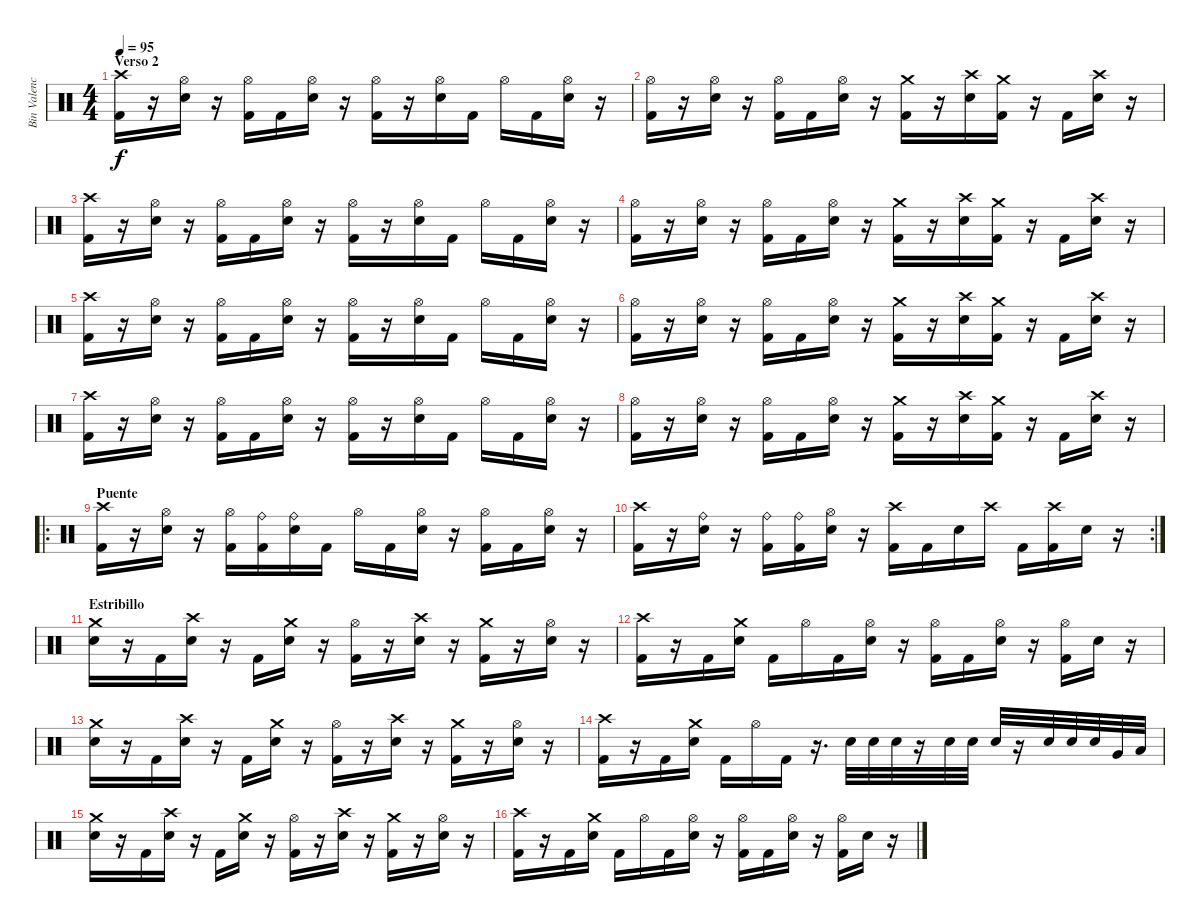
\track ("Bin Valencia (bateria)" "Bin Valenc") {instrument percussion}
\staff {score}
\articulation defaults
\ts (4 4)
\section ("" "Verso 2")
\tempo 95
\clef neutral
\ks c
("Crash high (hit)" "Kick (hit) 2").16{dy f} r.16 ("Hi-Hat (open)" "Snare (hit) 2").16 r.16 ("Hi-Hat (open)" "Kick (hit) 2").16 "Kick (hit) 2".16 ("Hi-Hat (open)" "Snare (hit) 2").16 r.16 ("Hi-Hat (open)" "Kick (hit) 2").16 r.16 ("Hi-Hat (open)" "Snare (hit) 2").16 "Kick (hit) 2".16 "Hi-Hat (open)".16 "Kick (hit) 2".16 ("Hi-Hat (open)" "Snare (hit) 2").16 r.16 |
("Hi-Hat (open)" "Kick (hit) 2").16 r.16 ("Hi-Hat (open)" "Snare (hit) 2").16 r.16 ("Hi-Hat (open)" "Kick (hit) 2").16 "Kick (hit) 2".16 ("Hi-Hat (open)" "Snare (hit) 2").16 r.16 ("Crash medium (hit)" "Kick (hit) 2").16 r.16 ("Crash high (hit)" "Snare (hit) 2").16 ("Crash medium (hit)" "Kick (hit) 2").16 r.16 "Kick (hit) 2".16 ("Crash high (hit)" "Snare (hit) 2").16 r.16 |
("Crash high (hit)" "Kick (hit) 2").16 r.16 ("Hi-Hat (open)" "Snare (hit) 2").16 r.16 ("Hi-Hat (open)" "Kick (hit) 2").16 "Kick (hit) 2".16 ("Hi-Hat (open)" "Snare (hit) 2").16 r.16 ("Hi-Hat (open)" "Kick (hit) 2").16 r.16 ("Hi-Hat (open)" "Snare (hit) 2").16 "Kick (hit) 2".16 "Hi-Hat (open)".16 "Kick (hit) 2".16 ("Hi-Hat (open)" "Snare (hit) 2").16 r.16 |
("Hi-Hat (open)" "Kick (hit) 2").16 r.16 ("Hi-Hat (open)" "Snare (hit) 2").16 r.16 ("Hi-Hat (open)" "Kick (hit) 2").16 "Kick (hit) 2".16 ("Hi-Hat (open)" "Snare (hit) 2").16 r.16 ("Crash medium (hit)" "Kick (hit) 2").16 r.16 ("Crash high (hit)" "Snare (hit) 2").16 ("Crash medium (hit)" "Kick (hit) 2").16 r.16 "Kick (hit) 2".16 ("Crash high (hit)" "Snare (hit) 2").16 r.16 |
("Crash high (hit)" "Kick (hit) 2").16 r.16 ("Hi-Hat (open)" "Snare (hit) 2").16 r.16 ("Hi-Hat (open)" "Kick (hit) 2").16 "Kick (hit) 2".16 ("Hi-Hat (open)" "Snare (hit) 2").16 r.16 ("Hi-Hat (open)" "Kick (hit) 2").16 r.16 ("Hi-Hat (open)" "Snare (hit) 2").16 "Kick (hit) 2".16 "Hi-Hat (open)".16 "Kick (hit) 2".16 ("Hi-Hat (open)" "Snare (hit) 2").16 r.16 |
("Hi-Hat (open)" "Kick (hit) 2").16 r.16 ("Hi-Hat (open)" "Snare (hit) 2").16 r.16 ("Hi-Hat (open)" "Kick (hit) 2").16 "Kick (hit) 2".16 ("Hi-Hat (open)" "Snare (hit) 2").16 r.16 ("Crash medium (hit)" "Kick (hit) 2").16 r.16 ("Crash high (hit)" "Snare (hit) 2").16 ("Crash medium (hit)" "Kick (hit) 2").16 r.16 "Kick (hit) 2".16 ("Crash high (hit)" "Snare (hit) 2").16 r.16 |
("Crash high (hit)" "Kick (hit) 2").16 r.16 ("Hi-Hat (open)" "Snare (hit) 2").16 r.16 ("Hi-Hat (open)" "Kick (hit) 2").16 "Kick (hit) 2".16 ("Hi-Hat (open)" "Snare (hit) 2").16 r.16 ("Hi-Hat (open)" "Kick (hit) 2").16 r.16 ("Hi-Hat (open)" "Snare (hit) 2").16 "Kick (hit) 2".16 "Hi-Hat (open)".16 "Kick (hit) 2".16 ("Hi-Hat (open)" "Snare (hit) 2").16 r.16 |
("Hi-Hat (open)" "Kick (hit) 2").16 r.16 ("Hi-Hat (open)" "Snare (hit) 2").16 r.16 ("Hi-Hat (open)" "Kick (hit) 2").16 "Kick (hit) 2".16 ("Hi-Hat (open)" "Snare (hit) 2").16 r.16 ("Crash medium (hit)" "Kick (hit) 2").16 r.16 ("Crash high (hit)" "Snare (hit) 2").16 ("Crash medium (hit)" "Kick (hit) 2").16 r.16 "Kick (hit) 2".16 ("Crash high (hit)" "Snare (hit) 2").16 r.16 |
\ro
\section ("" "Puente")
("Crash high (hit)" "Kick (hit) 2").16 r.16 ("Hi-Hat (open)" "Snare (hit) 2").16 r.16 ("Hi-Hat (open)" "Kick (hit) 2").16 ("Ride (bell)" "Kick (hit) 2").16 ("Ride (bell)" "Snare (hit) 2").16 "Kick (hit) 2".16 "Hi-Hat (open)".16 "Kick (hit) 2".16 ("Hi-Hat (open)" "Snare (hit) 2").16 r.16 ("Hi-Hat (open)" "Kick (hit) 2").16 "Kick (hit) 2".16 ("Hi-Hat (open)" "Snare (hit) 2").16 r.16 |
\rc 2
("Crash high (hit)" "Kick (hit) 2").16 r.16 ("Ride (bell)" "Snare (hit) 2").16 r.16 ("Ride (bell)" "Kick (hit) 2").16 ("Ride (bell)" "Kick (hit) 2").16 ("Hi-Hat (open)" "Snare (hit) 2").16 r.16 ("Crash high (hit)" "Kick (hit) 2").16 "Kick (hit) 2".16 "Snare (hit) 2".16 "Crash high (hit)".16 "Kick (hit) 2".16 ("Crash high (hit)" "Kick (hit) 2").16 "Snare (hit) 2".16 r.16 |
\section ("" "Estribillo")
("Crash medium (hit)" "Snare (hit) 2").16 r.16 "Kick (hit) 2".16 ("Crash high (hit)" "Snare (hit) 2").16 r.16 "Kick (hit) 2".16 ("Crash medium (hit)" "Snare (hit) 2").16 r.16 ("Hi-Hat (open)" "Kick (hit) 2").16 r.16 ("Crash high (hit)" "Snare (hit) 2").16 r.16 ("Crash medium (hit)" "Kick (hit) 2").16 r.16 ("Hi-Hat (open)" "Snare (hit) 2").16 r.16 |
("Crash high (hit)" "Kick (hit) 2").16 r.16 "Kick (hit) 2".16 ("Crash medium (hit)" "Snare (hit) 2").16 "Kick (hit) 2".16 "Hi-Hat (open)".16 "Kick (hit) 2".16 ("Hi-Hat (open)" "Snare (hit) 2").16 r.16 ("Hi-Hat (open)" "Kick (hit) 2").16 "Kick (hit) 2".16 ("Hi-Hat (open)" "Snare (hit) 2").16 r.16 ("Hi-Hat (open)" "Kick (hit) 2").16 "Snare (hit) 2".16 r.16 |
("Crash medium (hit)" "Snare (hit) 2").16 r.16 "Kick (hit) 2".16 ("Crash high (hit)" "Snare (hit) 2").16 r.16 "Kick (hit) 2".16 ("Crash medium (hit)" "Snare (hit) 2").16 r.16 ("Hi-Hat (open)" "Kick (hit) 2").16 r.16 ("Crash high (hit)" "Snare (hit) 2").16 r.16 ("Crash medium (hit)" "Kick (hit) 2").16 r.16 ("Hi-Hat (open)" "Snare (hit) 2").16 r.16 |
("Crash high (hit)" "Kick (hit) 2").16 r.16 "Kick (hit) 2".16 ("Crash medium (hit)" "Snare (hit) 2").16 "Kick (hit) 2".16 "Hi-Hat (open)".16 "Kick (hit) 2".16 r.16{d} "Electric Snare (hit)".32 "Electric Snare (hit)".32 "Electric Snare (hit)".32 r.16 "Electric Snare (hit)".32 "Electric Snare (hit)".32 "Electric Snare (hit)".32 r.16 "Electric Snare (hit)".32 "Electric Snare (hit)".32 "Electric Snare (hit)".32 "Very Low Tom (hit)".32 "Low Floor Tom (hit)".32 |
("Crash medium (hit)" "Snare (hit) 2").16 r.16 "Kick (hit) 2".16 ("Crash high (hit)" "Snare (hit) 2").16 r.16 "Kick (hit) 2".16 ("Crash medium (hit)" "Snare (hit) 2").16 r.16 ("Hi-Hat (open)" "Kick (hit) 2").16 r.16 ("Crash high (hit)" "Snare (hit) 2").16 r.16 ("Crash medium (hit)" "Kick (hit) 2").16 r.16 ("Hi-Hat (open)" "Snare (hit) 2").16 r.16 |
("Crash high (hit)" "Kick (hit) 2").16 r.16 "Kick (hit) 2".16 ("Crash medium (hit)" "Snare (hit) 2").16 "Kick (hit) 2".16 "Hi-Hat (open)".16 "Kick (hit) 2".16 ("Hi-Hat (open)" "Snare (hit) 2").16 r.16 ("Hi-Hat (open)" "Kick (hit) 2").16 "Kick (hit) 2".16 ("Hi-Hat (open)" "Snare (hit) 2").16 r.16 ("Hi-Hat (open)" "Kick (hit) 2").16 "Snare (hit) 2".16 r.16
